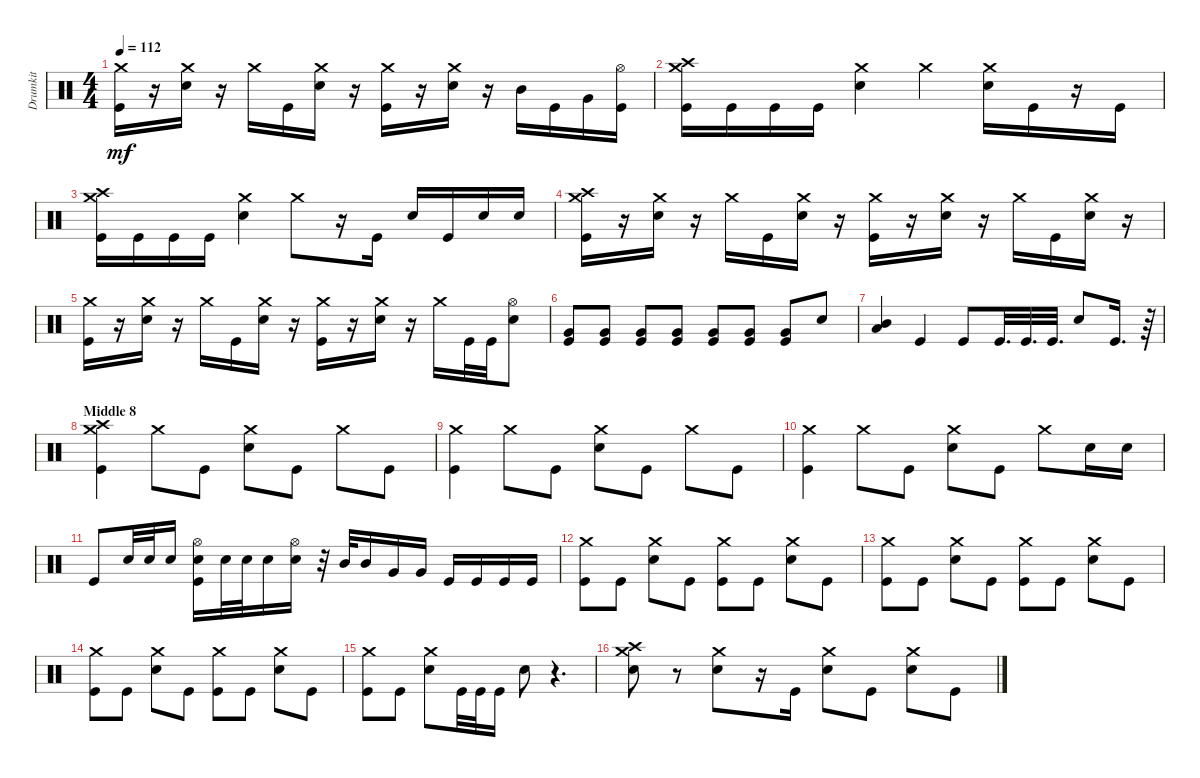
\track ("Drumkit" "Drumkit") {instrument percussion}
\staff {score}
\articulation defaults
\ts (4 4)
\tempo 112
\clef neutral
\ks c
("Kick (hit)" "Crash medium (hit)").16{dy mf} r.16 ("Snare (hit) 2" "Crash medium (hit)").16 r.16 "Crash medium (hit)".16 "Kick (hit)".16 ("Snare (hit) 2" "Crash medium (hit)").16 r.16 ("Kick (hit)" "Crash medium (hit)").16 r.16 ("Snare (hit) 2" "Crash medium (hit)").16 r.16 "Mid Tom (hit)".16 "Kick (hit)".16 "Very Low Tom (hit)".16 ("Kick (hit)" "Hi-Hat (open)").16 |
("Kick (hit)" "Crash medium (hit)" "Crash high (hit)").16 "Kick (hit)".16 "Kick (hit)".16 "Kick (hit)".16 ("Snare (hit) 2" "Crash medium (hit)").4 "Crash medium (hit)".4 ("Crash medium (hit)" "Snare (hit) 2").16 "Kick (hit)".16 r.16 "Kick (hit)".16 |
("Kick (hit)" "Crash medium (hit)" "Crash high (hit)").16 "Kick (hit)".16 "Kick (hit)".16 "Kick (hit)".16 ("Snare (hit) 2" "Crash medium (hit)").4 "Crash medium (hit)".8 r.16 "Kick (hit)".16 "Snare (hit) 2".16 "Kick (hit)".16 "Snare (hit) 2".16 "Snare (hit) 2".16 |
("Kick (hit)" "Crash medium (hit)" "Crash high (hit)").16 r.16 ("Snare (hit) 2" "Crash medium (hit)").16 r.16 "Crash medium (hit)".16 "Kick (hit)".16 ("Snare (hit) 2" "Crash medium (hit)").16 r.16 ("Kick (hit)" "Crash medium (hit)").16 r.16 ("Snare (hit) 2" "Crash medium (hit)").16 r.16 "Crash medium (hit)".16 "Kick (hit)".16 ("Snare (hit) 2" "Crash medium (hit)").16 r.16 |
("Kick (hit)" "Crash medium (hit)").16 r.16 ("Snare (hit) 2" "Crash medium (hit)").16 r.16 "Crash medium (hit)".16 "Kick (hit)".16 ("Snare (hit) 2" "Crash medium (hit)").16 r.16 ("Kick (hit)" "Crash medium (hit)").16 r.16 ("Snare (hit) 2" "Crash medium (hit)").16 r.16 "Crash medium (hit)".16 "Kick (hit)".32 "Kick (hit)".32 ("Snare (hit) 2" "Hi-Hat (open)").8 |
("Very Low Tom (hit)" "Kick (hit)").8 ("Very Low Tom (hit)" "Kick (hit)").8 ("Very Low Tom (hit)" "Kick (hit)").8 ("Very Low Tom (hit)" "Kick (hit)").8 ("Very Low Tom (hit)" "Kick (hit)").8 ("Very Low Tom (hit)" "Kick (hit)").8 ("Very Low Tom (hit)" "Kick (hit)").8 "Snare (hit) 2".8 |
("Low Floor Tom (hit)" "Mid Tom (hit)").4 "Kick (hit)".4 "Kick (hit)".8 "Kick (hit)".32{d} "Kick (hit)".32{d} "Kick (hit)".32{d} "Snare (hit) 2".8 "Kick (hit)".16{d} r.64 |
\section ("" "Middle 8")
("Kick (hit)" "Crash medium (hit)" "Crash high (hit)").4 "Crash medium (hit)".8 "Kick (hit)".8 ("Crash medium (hit)" "Snare (hit) 2").8 "Kick (hit)".8 "Crash medium (hit)".8 "Kick (hit)".8 |
("Kick (hit)" "Crash medium (hit)").4 "Crash medium (hit)".8 "Kick (hit)".8 ("Crash medium (hit)" "Snare (hit) 2").8 "Kick (hit)".8 "Crash medium (hit)".8 "Kick (hit)".8 |
("Kick (hit)" "Crash medium (hit)").4 "Crash medium (hit)".8 "Kick (hit)".8 ("Crash medium (hit)" "Snare (hit) 2").8 "Kick (hit)".8 "Crash medium (hit)".8 "Snare (hit) 2".16 "Snare (hit) 2".16 |
"Kick (hit)".8 "Snare (hit) 2".32 "Snare (hit) 2".32 "Snare (hit) 2".16 ("Kick (hit)" "Snare (hit) 2" "Hi-Hat (open)").16 "Snare (hit) 2".32 "Snare (hit) 2".32 "Snare (hit) 2".16 ("Snare (hit) 2" "Hi-Hat (open)").16 r.32 "Mid Tom (hit)".32 "Mid Tom (hit)".16 "Very Low Tom (hit)".16 "Very Low Tom (hit)".16 "Kick (hit)".16 "Kick (hit)".16 "Kick (hit)".16 "Kick (hit)".16 |
("Kick (hit)" "Crash medium (hit)").8 "Kick (hit)".8 ("Snare (hit) 2" "Crash medium (hit)").8 "Kick (hit)".8 ("Kick (hit)" "Crash medium (hit)").8 "Kick (hit)".8 ("Snare (hit) 2" "Crash medium (hit)").8 "Kick (hit)".8 |
("Kick (hit)" "Crash medium (hit)").8 "Kick (hit)".8 ("Snare (hit) 2" "Crash medium (hit)").8 "Kick (hit)".8 ("Kick (hit)" "Crash medium (hit)").8 "Kick (hit)".8 ("Snare (hit) 2" "Crash medium (hit)").8 "Kick (hit)".8 |
("Kick (hit)" "Crash medium (hit)").8 "Kick (hit)".8 ("Snare (hit) 2" "Crash medium (hit)").8 "Kick (hit)".8 ("Kick (hit)" "Crash medium (hit)").8 "Kick (hit)".8 ("Snare (hit) 2" "Crash medium (hit)").8 "Kick (hit)".8 |
("Kick (hit)" "Crash medium (hit)").8 "Kick (hit)".8 ("Snare (hit) 2" "Crash medium (hit)").8 "Kick (hit)".32 "Kick (hit)".32 "Kick (hit)".16 "Snare (hit) 2".8 r.4{d} |
("Snare (hit) 2" "Crash medium (hit)" "Crash high (hit)").8 r.8 ("Snare (hit) 2" "Crash medium (hit)").8 r.16 "Kick (hit)".16 ("Snare (hit) 2" "Crash medium (hit)").8 "Kick (hit)".8 ("Snare (hit) 2" "Crash medium (hit)").8 "Kick (hit)".8
